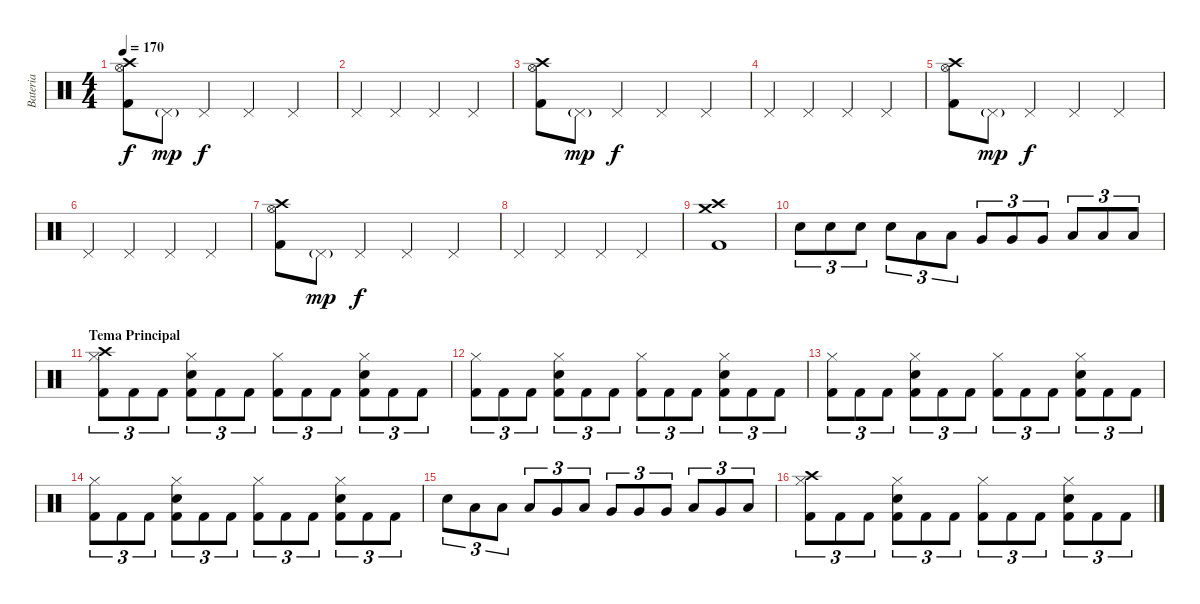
\track ("Bateria" "Bateria") {instrument percussion}
\staff {score}
\articulation defaults
\ts (4 4)
\tempo 170
\clef neutral
\ks c
("Hi-Hat (open)" "Kick (hit) 2" "Crash high (hit)").8{dy f} "Pedal Hi-Hat (hit)"{g}.8{dy mp} "Pedal Hi-Hat (hit)".4{dy f} "Pedal Hi-Hat (hit)".4 "Pedal Hi-Hat (hit)".4 |
"Pedal Hi-Hat (hit)".4 "Pedal Hi-Hat (hit)".4 "Pedal Hi-Hat (hit)".4 "Pedal Hi-Hat (hit)".4 |
("Hi-Hat (open)" "Kick (hit) 2" "Crash high (hit)").8 "Pedal Hi-Hat (hit)"{g}.8{dy mp} "Pedal Hi-Hat (hit)".4{dy f} "Pedal Hi-Hat (hit)".4 "Pedal Hi-Hat (hit)".4 |
"Pedal Hi-Hat (hit)".4 "Pedal Hi-Hat (hit)".4 "Pedal Hi-Hat (hit)".4 "Pedal Hi-Hat (hit)".4 |
("Hi-Hat (open)" "Kick (hit) 2" "Crash high (hit)").8 "Pedal Hi-Hat (hit)"{g}.8{dy mp} "Pedal Hi-Hat (hit)".4{dy f} "Pedal Hi-Hat (hit)".4 "Pedal Hi-Hat (hit)".4 |
"Pedal Hi-Hat (hit)".4 "Pedal Hi-Hat (hit)".4 "Pedal Hi-Hat (hit)".4 "Pedal Hi-Hat (hit)".4 |
("Hi-Hat (open)" "Kick (hit) 2" "Crash high (hit)").8 "Pedal Hi-Hat (hit)"{g}.8{dy mp} "Pedal Hi-Hat (hit)".4{dy f} "Pedal Hi-Hat (hit)".4 "Pedal Hi-Hat (hit)".4 |
"Pedal Hi-Hat (hit)".4 "Pedal Hi-Hat (hit)".4 "Pedal Hi-Hat (hit)".4 "Pedal Hi-Hat (hit)".4 |
("Kick (hit) 2" "Crash medium (hit)" "Crash high (hit)").1 |
"Snare (hit) 2".8{tu (3 2)} "Snare (hit) 2".8{tu (3 2)} "Snare (hit) 2".8{tu (3 2)} "Snare (hit) 2".8{tu (3 2)} "Low Tom (hit)".8{tu (3 2)} "Low Tom (hit)".8{tu (3 2)} "Very Low Tom (hit)".8{tu (3 2)} "Very Low Tom (hit)".8{tu (3 2)} "Very Low Tom (hit)".8{tu (3 2)} "Low Floor Tom (hit)".8{tu (3 2)} "Low Floor Tom (hit)".8{tu (3 2)} "Low Floor Tom (hit)".8{tu (3 2)} |
\section ("" "Tema Principal")
("Hi-Hat (closed)" "Kick (hit) 2" "Crash high (hit)").8{tu (3 2)} "Kick (hit) 2".8{tu (3 2)} "Kick (hit) 2".8{tu (3 2)} ("Hi-Hat (closed)" "Snare (hit) 2" "Kick (hit) 2").8{tu (3 2)} "Kick (hit) 2".8{tu (3 2)} "Kick (hit) 2".8{tu (3 2)} ("Hi-Hat (closed)" "Kick (hit) 2").8{tu (3 2)} "Kick (hit) 2".8{tu (3 2)} "Kick (hit) 2".8{tu (3 2)} ("Hi-Hat (closed)" "Snare (hit) 2" "Kick (hit) 2").8{tu (3 2)} "Kick (hit) 2".8{tu (3 2)} "Kick (hit) 2".8{tu (3 2)} |
("Hi-Hat (closed)" "Kick (hit) 2").8{tu (3 2)} "Kick (hit) 2".8{tu (3 2)} "Kick (hit) 2".8{tu (3 2)} ("Hi-Hat (closed)" "Snare (hit) 2" "Kick (hit) 2").8{tu (3 2)} "Kick (hit) 2".8{tu (3 2)} "Kick (hit) 2".8{tu (3 2)} ("Hi-Hat (closed)" "Kick (hit) 2").8{tu (3 2)} "Kick (hit) 2".8{tu (3 2)} "Kick (hit) 2".8{tu (3 2)} ("Hi-Hat (closed)" "Snare (hit) 2" "Kick (hit) 2").8{tu (3 2)} "Kick (hit) 2".8{tu (3 2)} "Kick (hit) 2".8{tu (3 2)} |
("Hi-Hat (closed)" "Kick (hit) 2").8{tu (3 2)} "Kick (hit) 2".8{tu (3 2)} "Kick (hit) 2".8{tu (3 2)} ("Hi-Hat (closed)" "Snare (hit) 2" "Kick (hit) 2").8{tu (3 2)} "Kick (hit) 2".8{tu (3 2)} "Kick (hit) 2".8{tu (3 2)} ("Hi-Hat (closed)" "Kick (hit) 2").8{tu (3 2)} "Kick (hit) 2".8{tu (3 2)} "Kick (hit) 2".8{tu (3 2)} ("Hi-Hat (closed)" "Snare (hit) 2" "Kick (hit) 2").8{tu (3 2)} "Kick (hit) 2".8{tu (3 2)} "Kick (hit) 2".8{tu (3 2)} |
("Hi-Hat (closed)" "Kick (hit) 2").8{tu (3 2)} "Kick (hit) 2".8{tu (3 2)} "Kick (hit) 2".8{tu (3 2)} ("Hi-Hat (closed)" "Snare (hit) 2" "Kick (hit) 2").8{tu (3 2)} "Kick (hit) 2".8{tu (3 2)} "Kick (hit) 2".8{tu (3 2)} ("Hi-Hat (closed)" "Kick (hit) 2").8{tu (3 2)} "Kick (hit) 2".8{tu (3 2)} "Kick (hit) 2".8{tu (3 2)} ("Hi-Hat (closed)" "Snare (hit) 2" "Kick (hit) 2").8{tu (3 2)} "Kick (hit) 2".8{tu (3 2)} "Kick (hit) 2".8{tu (3 2)} |
"Snare (hit) 2".8{tu (3 2)} "Low Tom (hit)".8{tu (3 2)} "Low Tom (hit)".8{tu (3 2)} "Low Tom (hit)".8{tu (3 2)} "Very Low Tom (hit)".8{tu (3 2)} "Low Tom (hit)".8{tu (3 2)} "Very Low Tom (hit)".8{tu (3 2)} "Very Low Tom (hit)".8{tu (3 2)} "Very Low Tom (hit)".8{tu (3 2)} "Low Floor Tom (hit)".8{tu (3 2)} "Very Low Tom (hit)".8{tu (3 2)} "Low Floor Tom (hit)".8{tu (3 2)} |
("Hi-Hat (closed)" "Kick (hit) 2" "Crash high (hit)").8{tu (3 2)} "Kick (hit) 2".8{tu (3 2)} "Kick (hit) 2".8{tu (3 2)} ("Hi-Hat (closed)" "Snare (hit) 2" "Kick (hit) 2").8{tu (3 2)} "Kick (hit) 2".8{tu (3 2)} "Kick (hit) 2".8{tu (3 2)} ("Hi-Hat (closed)" "Kick (hit) 2").8{tu (3 2)} "Kick (hit) 2".8{tu (3 2)} "Kick (hit) 2".8{tu (3 2)} ("Hi-Hat (closed)" "Snare (hit) 2" "Kick (hit) 2").8{tu (3 2)} "Kick (hit) 2".8{tu (3 2)} "Kick (hit) 2".8{tu (3 2)}
